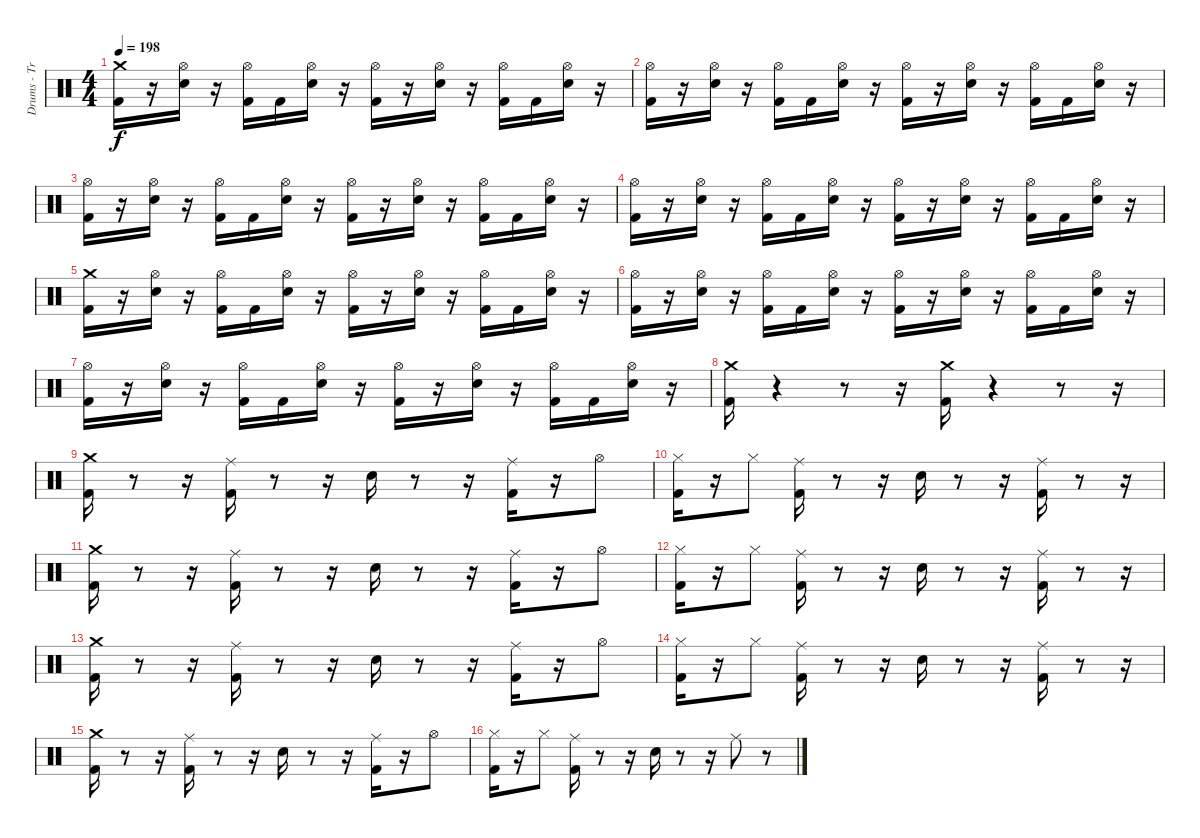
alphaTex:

\track ("Drums - Travis" "Drums - Tr") {instrument percussion}
\staff {score}
\articulation defaults
\ts (4 4)
\tempo 198
\clef neutral
\ks c
("Kick (hit) 2" "Crash medium (hit)").16{dy f} r.16 ("Electric Snare (hit)" "Hi-Hat (open)").16 r.16 ("Kick (hit) 2" "Hi-Hat (open)").16 "Kick (hit) 2".16 ("Electric Snare (hit)" "Hi-Hat (open)").16 r.16 ("Kick (hit) 2" "Hi-Hat (open)").16 r.16 ("Electric Snare (hit)" "Hi-Hat (open)").16 r.16 ("Kick (hit) 2" "Hi-Hat (open)").16 "Kick (hit) 2".16 ("Electric Snare (hit)" "Hi-Hat (open)").16 r.16 |
("Kick (hit) 2" "Hi-Hat (open)").16 r.16 ("Electric Snare (hit)" "Hi-Hat (open)").16 r.16 ("Kick (hit) 2" "Hi-Hat (open)").16 "Kick (hit) 2".16 ("Electric Snare (hit)" "Hi-Hat (open)").16 r.16 ("Kick (hit) 2" "Hi-Hat (open)").16 r.16 ("Electric Snare (hit)" "Hi-Hat (open)").16 r.16 ("Kick (hit) 2" "Hi-Hat (open)").16 "Kick (hit) 2".16 ("Electric Snare (hit)" "Hi-Hat (open)").16 r.16 |
("Kick (hit) 2" "Hi-Hat (open)").16 r.16 ("Electric Snare (hit)" "Hi-Hat (open)").16 r.16 ("Kick (hit) 2" "Hi-Hat (open)").16 "Kick (hit) 2".16 ("Electric Snare (hit)" "Hi-Hat (open)").16 r.16 ("Kick (hit) 2" "Hi-Hat (open)").16 r.16 ("Electric Snare (hit)" "Hi-Hat (open)").16 r.16 ("Kick (hit) 2" "Hi-Hat (open)").16 "Kick (hit) 2".16 ("Electric Snare (hit)" "Hi-Hat (open)").16 r.16 |
("Kick (hit) 2" "Hi-Hat (open)").16 r.16 ("Electric Snare (hit)" "Hi-Hat (open)").16 r.16 ("Kick (hit) 2" "Hi-Hat (open)").16 "Kick (hit) 2".16 ("Electric Snare (hit)" "Hi-Hat (open)").16 r.16 ("Kick (hit) 2" "Hi-Hat (open)").16 r.16 ("Electric Snare (hit)" "Hi-Hat (open)").16 r.16 ("Kick (hit) 2" "Hi-Hat (open)").16 "Kick (hit) 2".16 ("Electric Snare (hit)" "Hi-Hat (open)").16 r.16 |
("Kick (hit) 2" "Crash medium (hit)").16 r.16 ("Electric Snare (hit)" "Hi-Hat (open)").16 r.16 ("Kick (hit) 2" "Hi-Hat (open)").16 "Kick (hit) 2".16 ("Electric Snare (hit)" "Hi-Hat (open)").16 r.16 ("Kick (hit) 2" "Hi-Hat (open)").16 r.16 ("Electric Snare (hit)" "Hi-Hat (open)").16 r.16 ("Kick (hit) 2" "Hi-Hat (open)").16 "Kick (hit) 2".16 ("Electric Snare (hit)" "Hi-Hat (open)").16 r.16 |
("Kick (hit) 2" "Hi-Hat (open)").16 r.16 ("Electric Snare (hit)" "Hi-Hat (open)").16 r.16 ("Kick (hit) 2" "Hi-Hat (open)").16 "Kick (hit) 2".16 ("Electric Snare (hit)" "Hi-Hat (open)").16 r.16 ("Kick (hit) 2" "Hi-Hat (open)").16 r.16 ("Electric Snare (hit)" "Hi-Hat (open)").16 r.16 ("Kick (hit) 2" "Hi-Hat (open)").16 "Kick (hit) 2".16 ("Electric Snare (hit)" "Hi-Hat (open)").16 r.16 |
("Kick (hit) 2" "Hi-Hat (open)").16 r.16 ("Electric Snare (hit)" "Hi-Hat (open)").16 r.16 ("Kick (hit) 2" "Hi-Hat (open)").16 "Kick (hit) 2".16 ("Electric Snare (hit)" "Hi-Hat (open)").16 r.16 ("Kick (hit) 2" "Hi-Hat (open)").16 r.16 ("Electric Snare (hit)" "Hi-Hat (open)").16 r.16 ("Kick (hit) 2" "Hi-Hat (open)").16 "Kick (hit) 2".16 ("Electric Snare (hit)" "Hi-Hat (open)").16 r.16 |
("Kick (hit) 2" "Crash medium (hit)").16 r.4 r.8 r.16 ("Kick (hit) 2" "Crash medium (hit)").16 r.4 r.8 r.16 |
("Crash medium (hit)" "Kick (hit) 2").16 r.8 r.16 ("Ride (middle)" "Kick (hit) 2").16 r.8 r.16 "Electric Snare (hit)".16 r.8 r.16 ("Ride (middle)" "Kick (hit) 2").16 r.16 "Hi-Hat (open)".8 |
("Kick (hit) 2" "Hi-Hat (closed)").16 r.16 "Hi-Hat (closed)".8 ("Ride (middle)" "Kick (hit) 2").16 r.8 r.16 "Electric Snare (hit)".16 r.8 r.16 ("Ride (middle)" "Kick (hit) 2").16 r.8 r.16 |
("Crash medium (hit)" "Kick (hit) 2").16 r.8 r.16 ("Ride (middle)" "Kick (hit) 2").16 r.8 r.16 "Electric Snare (hit)".16 r.8 r.16 ("Ride (middle)" "Kick (hit) 2").16 r.16 "Hi-Hat (open)".8 |
("Kick (hit) 2" "Hi-Hat (closed)").16 r.16 "Hi-Hat (closed)".8 ("Ride (middle)" "Kick (hit) 2").16 r.8 r.16 "Electric Snare (hit)".16 r.8 r.16 ("Ride (middle)" "Kick (hit) 2").16 r.8 r.16 |
("Crash medium (hit)" "Kick (hit) 2").16 r.8 r.16 ("Ride (middle)" "Kick (hit) 2").16 r.8 r.16 "Electric Snare (hit)".16 r.8 r.16 ("Ride (middle)" "Kick (hit) 2").16 r.16 "Hi-Hat (open)".8 |
("Kick (hit) 2" "Hi-Hat (closed)").16 r.16 "Hi-Hat (closed)".8 ("Ride (middle)" "Kick (hit) 2").16 r.8 r.16 "Electric Snare (hit)".16 r.8 r.16 ("Ride (middle)" "Kick (hit) 2").16 r.8 r.16 |
("Crash medium (hit)" "Kick (hit) 2").16 r.8 r.16 ("Ride (middle)" "Kick (hit) 2").16 r.8 r.16 "Electric Snare (hit)".16 r.8 r.16 ("Ride (middle)" "Kick (hit) 2").16 r.16 "Hi-Hat (open)".8 |
("Kick (hit) 2" "Hi-Hat (closed)").16 r.16 "Hi-Hat (closed)".8 ("Ride (middle)" "Kick (hit) 2").16 r.8 r.16 "Electric Snare (hit)".16 r.8 r.16 "Ride (middle)".8 r.8
